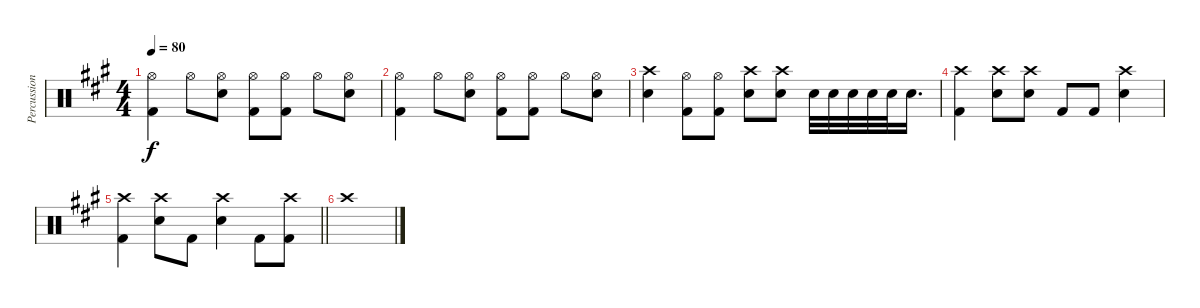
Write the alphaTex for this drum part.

\track ("Percussion" "Percussion") {instrument percussion}
\staff {score}
\articulation defaults
\ts (4 4)
\tempo 80
\clef neutral
\ks a
("Hi-Hat (open)" "Kick (hit) 2").4{dy f} "Hi-Hat (open)".8 ("Hi-Hat (open)" "Snare (hit) 2").8 ("Hi-Hat (open)" "Kick (hit) 2").8 ("Hi-Hat (open)" "Kick (hit) 2").8 "Hi-Hat (open)".8 ("Hi-Hat (open)" "Snare (hit) 2").8 |
("Hi-Hat (open)" "Kick (hit) 2").4 "Hi-Hat (open)".8 ("Hi-Hat (open)" "Snare (hit) 2").8 ("Hi-Hat (open)" "Kick (hit) 2").8 ("Hi-Hat (open)" "Kick (hit) 2").8 "Hi-Hat (open)".8 ("Hi-Hat (open)" "Snare (hit) 2").8 |
("Crash high (hit)" "Snare (hit) 2").4 ("Hi-Hat (open)" "Kick (hit) 2").8 ("Hi-Hat (open)" "Kick (hit) 2").8 ("Crash high (hit)" "Snare (hit) 2").8 ("Crash high (hit)" "Snare (hit) 2").8 "Snare (hit) 2".32 "Snare (hit) 2".32 "Snare (hit) 2".32 "Snare (hit) 2".32 "Snare (hit) 2".32 "Snare (hit) 2".16{d} |
("Crash high (hit)" "Kick (hit) 2").4 ("Crash high (hit)" "Snare (hit) 2").8 ("Crash high (hit)" "Snare (hit) 2").8 "Kick (hit) 2".8 "Kick (hit) 2".8 ("Crash high (hit)" "Snare (hit) 2").4 |
\barLineRight lightlight
("Crash high (hit)" "Kick (hit) 2").4 ("Crash high (hit)" "Snare (hit) 2").8 "Kick (hit) 2".8 ("Crash high (hit)" "Snare (hit) 2").4 "Kick (hit) 2".8 ("Crash high (hit)" "Kick (hit) 2").8 |
"Crash high (hit)".1
